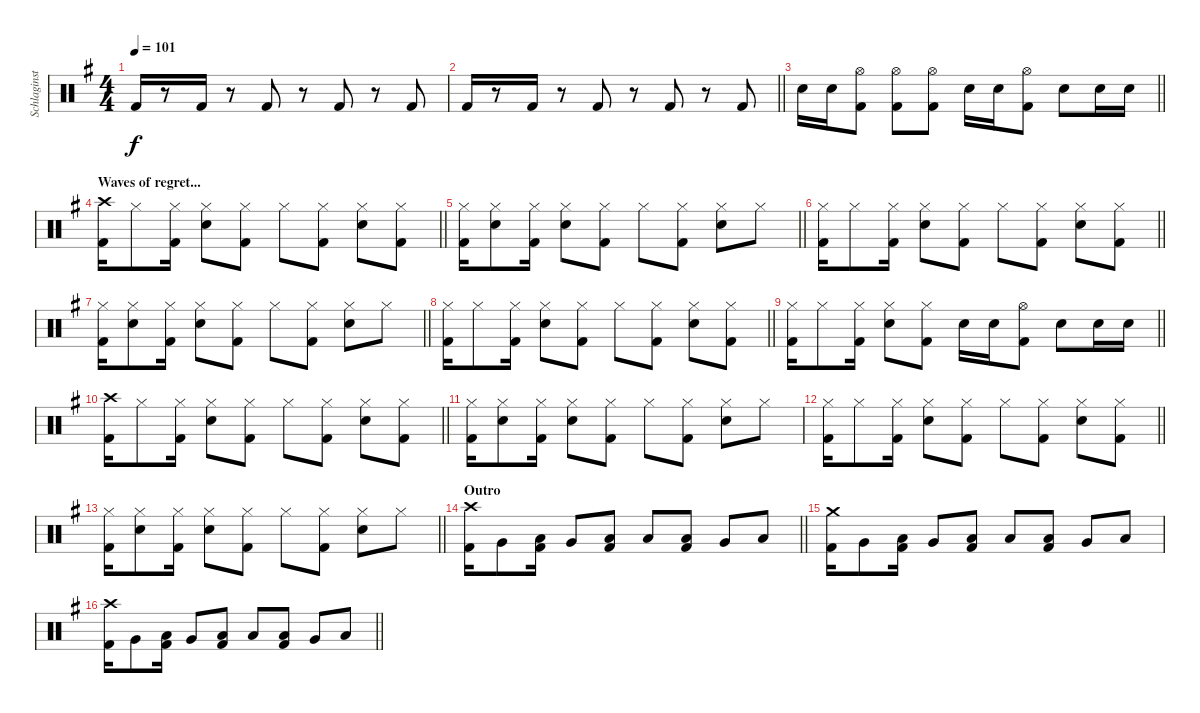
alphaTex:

\track ("Schlaginstrumente - Auswahl" "Schlaginst") {instrument percussion}
\staff {score}
\articulation defaults
\ts (4 4)
\tempo 101
\clef neutral
\ks g "Kick (hit) 2".16{dy f}
r.8 "Kick (hit) 2".16 r.8 "Kick (hit) 2".8 r.8 "Kick (hit) 2".8 r.8 "Kick (hit) 2".8 |
\barLineRight lightlight "Kick (hit) 2".16
r.8 "Kick (hit) 2".16 r.8 "Kick (hit) 2".8 r.8 "Kick (hit) 2".8 r.8 "Kick (hit) 2".8 |
\barLineRight lightlight "Electric Snare (hit)".16 "Electric Snare (hit)".16
("Hi-Hat (open)" "Kick (hit) 2").8 ("Hi-Hat (open)" "Kick (hit) 2").8 ("Hi-Hat (open)" "Kick (hit) 2").8 "Electric Snare (hit)".16 "Electric Snare (hit)".16 ("Hi-Hat (open)" "Kick (hit) 2").8 "Electric Snare (hit)".8 "Electric Snare (hit)".16 "Electric Snare (hit)".16 |
\section ("" "Waves of regret...")
\barLineRight lightlight
("Crash high (hit)" "Kick (hit) 2").16 "Hi-Hat (closed)".8 ("Hi-Hat (closed)" "Kick (hit) 2").16 ("Hi-Hat (closed)" "Electric Snare (hit)").8 ("Hi-Hat (closed)" "Kick (hit) 2").8 "Hi-Hat (closed)".8 ("Hi-Hat (closed)" "Kick (hit) 2").8 ("Hi-Hat (closed)" "Electric Snare (hit)").8 ("Hi-Hat (closed)" "Kick (hit) 2").8 |
\barLineRight lightlight
("Hi-Hat (closed)" "Kick (hit) 2").16 ("Hi-Hat (closed)" "Electric Snare (hit)").8 ("Hi-Hat (closed)" "Kick (hit) 2").16 ("Hi-Hat (closed)" "Electric Snare (hit)").8 ("Hi-Hat (closed)" "Kick (hit) 2").8 "Hi-Hat (closed)".8 ("Hi-Hat (closed)" "Kick (hit) 2").8 ("Hi-Hat (closed)" "Electric Snare (hit)").8 "Hi-Hat (closed)".8 |
\barLineRight lightlight
("Hi-Hat (closed)" "Kick (hit) 2").16 "Hi-Hat (closed)".8 ("Hi-Hat (closed)" "Kick (hit) 2").16 ("Hi-Hat (closed)" "Electric Snare (hit)").8 ("Hi-Hat (closed)" "Kick (hit) 2").8 "Hi-Hat (closed)".8 ("Hi-Hat (closed)" "Kick (hit) 2").8 ("Hi-Hat (closed)" "Electric Snare (hit)").8 ("Hi-Hat (closed)" "Kick (hit) 2").8 |
\section ("" "")
\barLineRight lightlight
("Hi-Hat (closed)" "Kick (hit) 2").16 ("Hi-Hat (closed)" "Electric Snare (hit)").8 ("Hi-Hat (closed)" "Kick (hit) 2").16 ("Hi-Hat (closed)" "Electric Snare (hit)").8 ("Hi-Hat (closed)" "Kick (hit) 2").8 "Hi-Hat (closed)".8 ("Hi-Hat (closed)" "Kick (hit) 2").8 ("Hi-Hat (closed)" "Electric Snare (hit)").8 "Hi-Hat (closed)".8 |
\barLineRight lightlight
("Hi-Hat (closed)" "Kick (hit) 2").16 "Hi-Hat (closed)".8 ("Hi-Hat (closed)" "Kick (hit) 2").16 ("Hi-Hat (closed)" "Electric Snare (hit)").8 ("Hi-Hat (closed)" "Kick (hit) 2").8 "Hi-Hat (closed)".8 ("Hi-Hat (closed)" "Kick (hit) 2").8 ("Hi-Hat (closed)" "Electric Snare (hit)").8 ("Hi-Hat (closed)" "Kick (hit) 2").8 |
\barLineRight lightlight
("Hi-Hat (closed)" "Kick (hit) 2").16 "Hi-Hat (closed)".8 ("Hi-Hat (closed)" "Kick (hit) 2").16 ("Hi-Hat (closed)" "Electric Snare (hit)").8 ("Hi-Hat (closed)" "Kick (hit) 2").8 "Electric Snare (hit)".16 "Electric Snare (hit)".16 ("Hi-Hat (open)" "Kick (hit) 2").8 "Electric Snare (hit)".8 "Electric Snare (hit)".16 "Electric Snare (hit)".16 |
\barLineRight lightlight
("Crash high (hit)" "Kick (hit) 2").16 "Hi-Hat (closed)".8 ("Hi-Hat (closed)" "Kick (hit) 2").16 ("Hi-Hat (closed)" "Electric Snare (hit)").8 ("Hi-Hat (closed)" "Kick (hit) 2").8 "Hi-Hat (closed)".8 ("Hi-Hat (closed)" "Kick (hit) 2").8 ("Hi-Hat (closed)" "Electric Snare (hit)").8 ("Hi-Hat (closed)" "Kick (hit) 2").8 |
("Hi-Hat (closed)" "Kick (hit) 2").16 ("Hi-Hat (closed)" "Electric Snare (hit)").8 ("Hi-Hat (closed)" "Kick (hit) 2").16 ("Hi-Hat (closed)" "Electric Snare (hit)").8 ("Hi-Hat (closed)" "Kick (hit) 2").8 "Hi-Hat (closed)".8 ("Hi-Hat (closed)" "Kick (hit) 2").8 ("Hi-Hat (closed)" "Electric Snare (hit)").8 "Hi-Hat (closed)".8 |
\barLineRight lightlight
("Hi-Hat (closed)" "Kick (hit) 2").16 "Hi-Hat (closed)".8 ("Hi-Hat (closed)" "Kick (hit) 2").16 ("Hi-Hat (closed)" "Electric Snare (hit)").8 ("Hi-Hat (closed)" "Kick (hit) 2").8 "Hi-Hat (closed)".8 ("Hi-Hat (closed)" "Kick (hit) 2").8 ("Hi-Hat (closed)" "Electric Snare (hit)").8 ("Hi-Hat (closed)" "Kick (hit) 2").8 |
\barLineRight lightlight
("Hi-Hat (closed)" "Kick (hit) 2").16 ("Hi-Hat (closed)" "Electric Snare (hit)").8 ("Hi-Hat (closed)" "Kick (hit) 2").16 ("Hi-Hat (closed)" "Electric Snare (hit)").8 ("Hi-Hat (closed)" "Kick (hit) 2").8 "Hi-Hat (closed)".8 ("Hi-Hat (closed)" "Kick (hit) 2").8 ("Hi-Hat (closed)" "Electric Snare (hit)").8 "Hi-Hat (closed)".8 |
\section ("" "Outro")
\barLineRight lightlight
("Crash high (hit)" "Kick (hit) 2").16 "Very Low Tom (hit)".8 ("Low Floor Tom (hit)" "Kick (hit) 2").16 "Very Low Tom (hit)".8 ("Low Floor Tom (hit)" "Kick (hit) 2").8 "Low Floor Tom (hit)".8 ("Low Floor Tom (hit)" "Kick (hit) 2").8 "Very Low Tom (hit)".8 "Low Floor Tom (hit)".8 |
("Crash medium (hit)" "Kick (hit) 2").16 "Very Low Tom (hit)".8 ("Low Floor Tom (hit)" "Kick (hit) 2").16 "Very Low Tom (hit)".8 ("Low Floor Tom (hit)" "Kick (hit) 2").8 "Low Floor Tom (hit)".8 ("Low Floor Tom (hit)" "Kick (hit) 2").8 "Very Low Tom (hit)".8 "Low Floor Tom (hit)".8 |
\barLineRight lightlight
("Crash high (hit)" "Kick (hit) 2").16 "Very Low Tom (hit)".8 ("Low Floor Tom (hit)" "Kick (hit) 2").16 "Very Low Tom (hit)".8 ("Low Floor Tom (hit)" "Kick (hit) 2").8 "Low Floor Tom (hit)".8 ("Low Floor Tom (hit)" "Kick (hit) 2").8 "Very Low Tom (hit)".8 "Low Floor Tom (hit)".8
